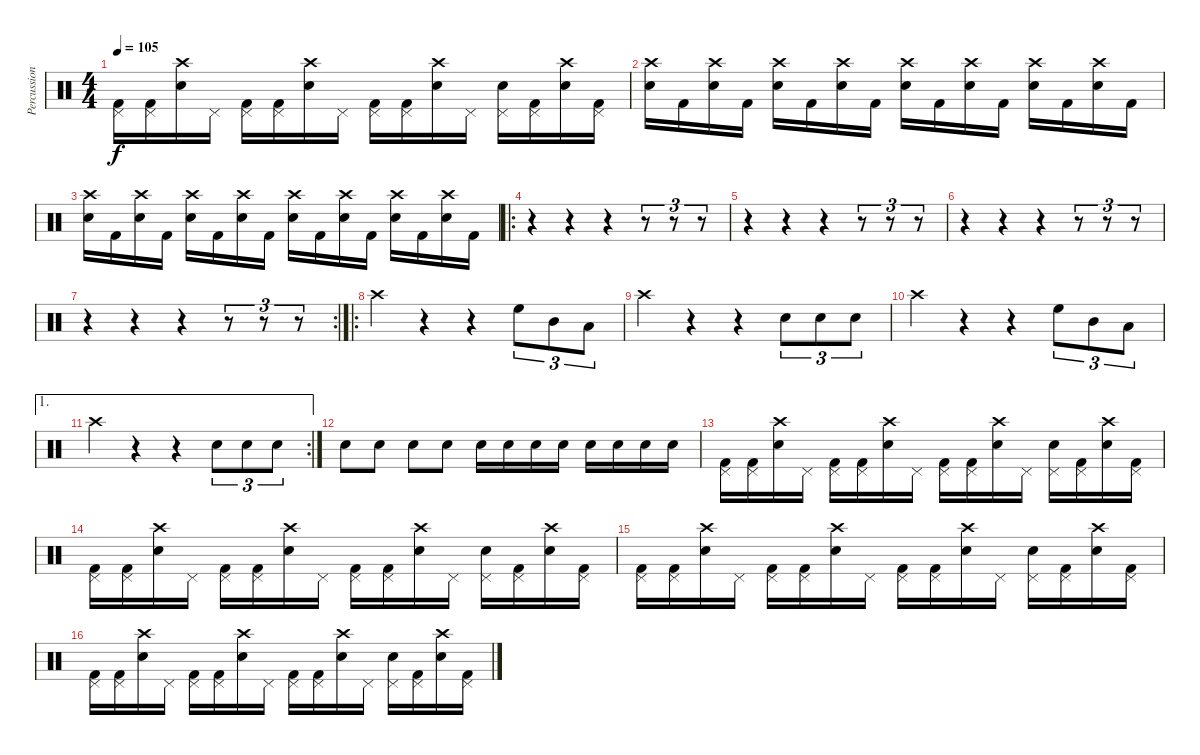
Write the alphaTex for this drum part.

\track ("Percussion" "Percussion") {instrument percussion}
\staff {score}
\articulation defaults
\ts (4 4)
\tempo 105
\clef neutral
\ks c
("Pedal Hi-Hat (hit)" "Kick (hit) 2").16{dy f} ("Pedal Hi-Hat (hit)" "Kick (hit) 2").16 ("Crash high (hit)" "Electric Snare (hit)").16 "Pedal Hi-Hat (hit)".16 ("Pedal Hi-Hat (hit)" "Kick (hit) 2").16 ("Pedal Hi-Hat (hit)" "Kick (hit) 2").16 ("Crash high (hit)" "Electric Snare (hit)").16 "Pedal Hi-Hat (hit)".16 ("Pedal Hi-Hat (hit)" "Kick (hit) 2").16 ("Pedal Hi-Hat (hit)" "Kick (hit) 2").16 ("Crash high (hit)" "Electric Snare (hit)").16 "Pedal Hi-Hat (hit)".16 ("Pedal Hi-Hat (hit)" "Electric Snare (hit)").16 ("Pedal Hi-Hat (hit)" "Kick (hit) 2").16 ("Crash high (hit)" "Electric Snare (hit)").16 ("Pedal Hi-Hat (hit)" "Kick (hit) 2").16 |
("Crash high (hit)" "Electric Snare (hit)").16 "Kick (hit) 2".16 ("Crash high (hit)" "Electric Snare (hit)").16 "Kick (hit) 2".16 ("Crash high (hit)" "Electric Snare (hit)").16 "Kick (hit) 2".16 ("Crash high (hit)" "Electric Snare (hit)").16 "Kick (hit) 2".16 ("Crash high (hit)" "Electric Snare (hit)").16 "Kick (hit) 2".16 ("Crash high (hit)" "Electric Snare (hit)").16 "Kick (hit) 2".16 ("Crash high (hit)" "Electric Snare (hit)").16 "Kick (hit) 2".16 ("Crash high (hit)" "Electric Snare (hit)").16 "Kick (hit) 2".16 |
("Crash high (hit)" "Electric Snare (hit)").16 "Kick (hit) 2".16 ("Crash high (hit)" "Electric Snare (hit)").16 "Kick (hit) 2".16 ("Crash high (hit)" "Electric Snare (hit)").16 "Kick (hit) 2".16 ("Crash high (hit)" "Electric Snare (hit)").16 "Kick (hit) 2".16 ("Crash high (hit)" "Electric Snare (hit)").16 "Kick (hit) 2".16 ("Crash high (hit)" "Electric Snare (hit)").16 "Kick (hit) 2".16 ("Crash high (hit)" "Electric Snare (hit)").16 "Kick (hit) 2".16 ("Crash high (hit)" "Electric Snare (hit)").16 "Kick (hit) 2".16 |
\ro
\section ("" "")
r.4 r.4 r.4 r.8{tu (3 2)} r.8{tu (3 2)} r.8{tu (3 2)} |
r.4 r.4 r.4 r.8{tu (3 2)} r.8{tu (3 2)} r.8{tu (3 2)} |
r.4 r.4 r.4 r.8{tu (3 2)} r.8{tu (3 2)} r.8{tu (3 2)} |
\rc 2
r.4 r.4 r.4 r.8{tu (3 2)} r.8{tu (3 2)} r.8{tu (3 2)} |
\ro "Crash high (hit)".4
r.4 r.4 "High Floor Tom (hit)".8{tu (3 2)} "Mid Tom (hit)".8{tu (3 2)} "Low Tom (hit)".8{tu (3 2)} |
"Crash high (hit)".4 r.4 r.4 "Electric Snare (hit)".8{tu (3 2)} "Electric Snare (hit)".8{tu (3 2)} "Electric Snare (hit)".8{tu (3 2)} |
"Crash high (hit)".4 r.4 r.4 "High Floor Tom (hit)".8{tu (3 2)} "Mid Tom (hit)".8{tu (3 2)} "Low Tom (hit)".8{tu (3 2)} |
\ae 1
\rc 2 "Crash high (hit)".4
r.4 r.4 "Electric Snare (hit)".8{tu (3 2)} "Electric Snare (hit)".8{tu (3 2)} "Electric Snare (hit)".8{tu (3 2)} |
"Electric Snare (hit)".8 "Electric Snare (hit)".8 "Electric Snare (hit)".8 "Electric Snare (hit)".8 "Electric Snare (hit)".16 "Electric Snare (hit)".16 "Electric Snare (hit)".16 "Electric Snare (hit)".16 "Electric Snare (hit)".16 "Electric Snare (hit)".16 "Electric Snare (hit)".16 "Electric Snare (hit)".16 |
("Pedal Hi-Hat (hit)" "Kick (hit) 2").16 ("Pedal Hi-Hat (hit)" "Kick (hit) 2").16 ("Crash high (hit)" "Electric Snare (hit)").16 "Pedal Hi-Hat (hit)".16 ("Pedal Hi-Hat (hit)" "Kick (hit) 2").16 ("Pedal Hi-Hat (hit)" "Kick (hit) 2").16 ("Crash high (hit)" "Electric Snare (hit)").16 "Pedal Hi-Hat (hit)".16 ("Pedal Hi-Hat (hit)" "Kick (hit) 2").16 ("Pedal Hi-Hat (hit)" "Kick (hit) 2").16 ("Crash high (hit)" "Electric Snare (hit)").16 "Pedal Hi-Hat (hit)".16 ("Pedal Hi-Hat (hit)" "Electric Snare (hit)").16 ("Pedal Hi-Hat (hit)" "Kick (hit) 2").16 ("Crash high (hit)" "Electric Snare (hit)").16 ("Pedal Hi-Hat (hit)" "Kick (hit) 2").16 |
("Pedal Hi-Hat (hit)" "Kick (hit) 2").16 ("Pedal Hi-Hat (hit)" "Kick (hit) 2").16 ("Crash high (hit)" "Electric Snare (hit)").16 "Pedal Hi-Hat (hit)".16 ("Pedal Hi-Hat (hit)" "Kick (hit) 2").16 ("Pedal Hi-Hat (hit)" "Kick (hit) 2").16 ("Crash high (hit)" "Electric Snare (hit)").16 "Pedal Hi-Hat (hit)".16 ("Pedal Hi-Hat (hit)" "Kick (hit) 2").16 ("Pedal Hi-Hat (hit)" "Kick (hit) 2").16 ("Crash high (hit)" "Electric Snare (hit)").16 "Pedal Hi-Hat (hit)".16 ("Pedal Hi-Hat (hit)" "Electric Snare (hit)").16 ("Pedal Hi-Hat (hit)" "Kick (hit) 2").16 ("Crash high (hit)" "Electric Snare (hit)").16 ("Pedal Hi-Hat (hit)" "Kick (hit) 2").16 |
("Pedal Hi-Hat (hit)" "Kick (hit) 2").16 ("Pedal Hi-Hat (hit)" "Kick (hit) 2").16 ("Crash high (hit)" "Electric Snare (hit)").16 "Pedal Hi-Hat (hit)".16 ("Pedal Hi-Hat (hit)" "Kick (hit) 2").16 ("Pedal Hi-Hat (hit)" "Kick (hit) 2").16 ("Crash high (hit)" "Electric Snare (hit)").16 "Pedal Hi-Hat (hit)".16 ("Pedal Hi-Hat (hit)" "Kick (hit) 2").16 ("Pedal Hi-Hat (hit)" "Kick (hit) 2").16 ("Crash high (hit)" "Electric Snare (hit)").16 "Pedal Hi-Hat (hit)".16 ("Pedal Hi-Hat (hit)" "Electric Snare (hit)").16 ("Pedal Hi-Hat (hit)" "Kick (hit) 2").16 ("Crash high (hit)" "Electric Snare (hit)").16 ("Pedal Hi-Hat (hit)" "Kick (hit) 2").16 |
("Pedal Hi-Hat (hit)" "Kick (hit) 2").16 ("Pedal Hi-Hat (hit)" "Kick (hit) 2").16 ("Crash high (hit)" "Electric Snare (hit)").16 "Pedal Hi-Hat (hit)".16 ("Pedal Hi-Hat (hit)" "Kick (hit) 2").16 ("Pedal Hi-Hat (hit)" "Kick (hit) 2").16 ("Crash high (hit)" "Electric Snare (hit)").16 "Pedal Hi-Hat (hit)".16 ("Pedal Hi-Hat (hit)" "Kick (hit) 2").16 ("Pedal Hi-Hat (hit)" "Kick (hit) 2").16 ("Crash high (hit)" "Electric Snare (hit)").16 "Pedal Hi-Hat (hit)".16 ("Pedal Hi-Hat (hit)" "Electric Snare (hit)").16 ("Pedal Hi-Hat (hit)" "Kick (hit) 2").16 ("Crash high (hit)" "Electric Snare (hit)").16 ("Pedal Hi-Hat (hit)" "Kick (hit) 2").16
